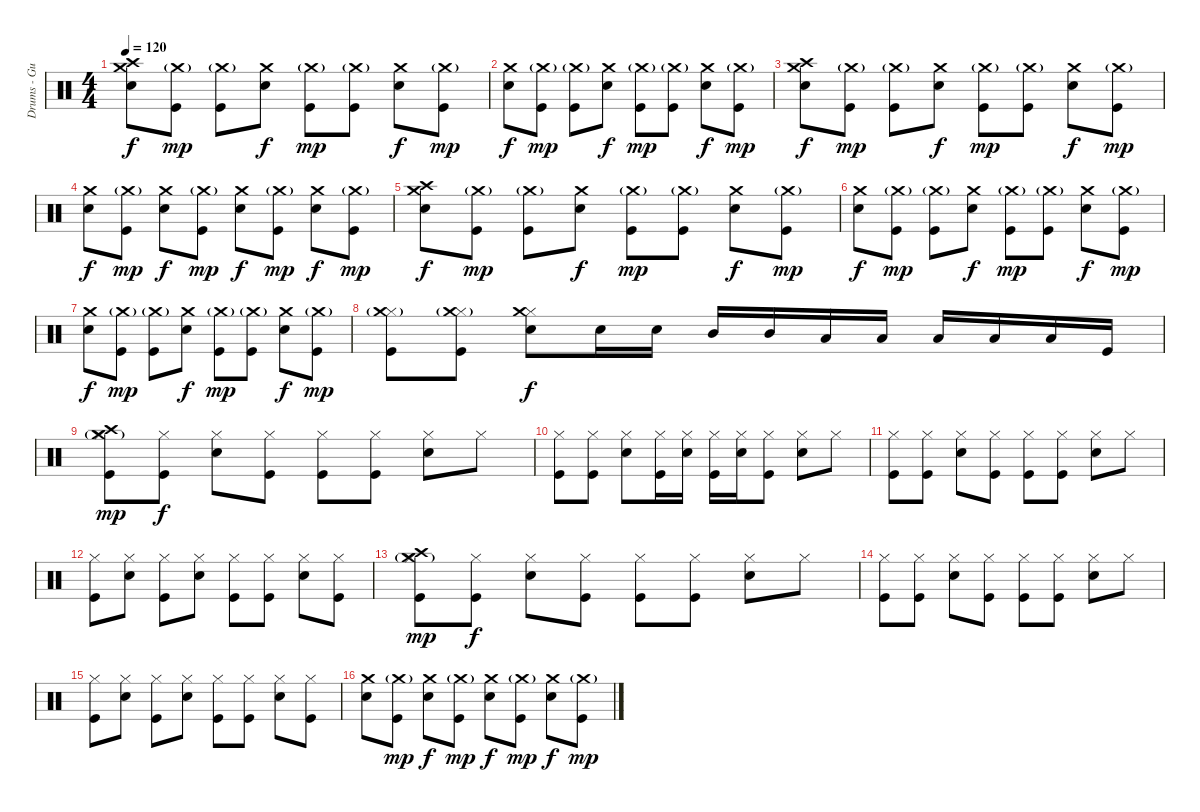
\track ("Drums - Gustav" "Drums - Gu") {instrument percussion}
\staff {score}
\articulation defaults
\ts (4 4)
\tempo 120
\clef neutral
\ks c
("Snare (hit) 2" "Crash high (hit)" "Crash medium (hit)").8{dy f} ("Kick (hit)" "Crash medium (hit)"{g}).8{dy mp} ("Kick (hit)" "Crash medium (hit)"{g}).8 ("Snare (hit) 2" "Crash medium (hit)").8{dy f} ("Kick (hit)" "Crash medium (hit)"{g}).8{dy mp} ("Kick (hit)" "Crash medium (hit)"{g}).8 ("Snare (hit) 2" "Crash medium (hit)").8{dy f} ("Kick (hit)" "Crash medium (hit)"{g}).8{dy mp} |
("Snare (hit) 2" "Crash medium (hit)").8{dy f} ("Kick (hit)" "Crash medium (hit)"{g}).8{dy mp} ("Kick (hit)" "Crash medium (hit)"{g}).8 ("Snare (hit) 2" "Crash medium (hit)").8{dy f} ("Kick (hit)" "Crash medium (hit)"{g}).8{dy mp} ("Kick (hit)" "Crash medium (hit)"{g}).8 ("Snare (hit) 2" "Crash medium (hit)").8{dy f} ("Kick (hit)" "Crash medium (hit)"{g}).8{dy mp} |
("Snare (hit) 2" "Crash high (hit)" "Crash medium (hit)").8{dy f} ("Kick (hit)" "Crash medium (hit)"{g}).8{dy mp} ("Kick (hit)" "Crash medium (hit)"{g}).8 ("Snare (hit) 2" "Crash medium (hit)").8{dy f} ("Kick (hit)" "Crash medium (hit)"{g}).8{dy mp} ("Kick (hit)" "Crash medium (hit)"{g}).8 ("Snare (hit) 2" "Crash medium (hit)").8{dy f} ("Kick (hit)" "Crash medium (hit)"{g}).8{dy mp} |
("Snare (hit) 2" "Crash medium (hit)").8{dy f} ("Kick (hit)" "Crash medium (hit)"{g}).8{dy mp} ("Snare (hit) 2" "Crash medium (hit)").8{dy f} ("Kick (hit)" "Crash medium (hit)"{g}).8{dy mp} ("Snare (hit) 2" "Crash medium (hit)").8{dy f} ("Kick (hit)" "Crash medium (hit)"{g}).8{dy mp} ("Snare (hit) 2" "Crash medium (hit)").8{dy f} ("Kick (hit)" "Crash medium (hit)"{g}).8{dy mp} |
("Snare (hit) 2" "Crash high (hit)" "Crash medium (hit)").8{dy f} ("Kick (hit)" "Crash medium (hit)"{g}).8{dy mp} ("Kick (hit)" "Crash medium (hit)"{g}).8 ("Snare (hit) 2" "Crash medium (hit)").8{dy f} ("Kick (hit)" "Crash medium (hit)"{g}).8{dy mp} ("Kick (hit)" "Crash medium (hit)"{g}).8 ("Snare (hit) 2" "Crash medium (hit)").8{dy f} ("Kick (hit)" "Crash medium (hit)"{g}).8{dy mp} |
("Snare (hit) 2" "Crash medium (hit)").8{dy f} ("Kick (hit)" "Crash medium (hit)"{g}).8{dy mp} ("Kick (hit)" "Crash medium (hit)"{g}).8 ("Snare (hit) 2" "Crash medium (hit)").8{dy f} ("Kick (hit)" "Crash medium (hit)"{g}).8{dy mp} ("Kick (hit)" "Crash medium (hit)"{g}).8 ("Snare (hit) 2" "Crash medium (hit)").8{dy f} ("Kick (hit)" "Crash medium (hit)"{g}).8{dy mp} |
("Snare (hit) 2" "Crash medium (hit)").8{dy f} ("Kick (hit)" "Crash medium (hit)"{g}).8{dy mp} ("Kick (hit)" "Crash medium (hit)"{g}).8 ("Snare (hit) 2" "Crash medium (hit)").8{dy f} ("Kick (hit)" "Crash medium (hit)"{g}).8{dy mp} ("Kick (hit)" "Crash medium (hit)"{g}).8 ("Snare (hit) 2" "Crash medium (hit)").8{dy f} ("Kick (hit)" "Crash medium (hit)"{g}).8{dy mp} |
("Kick (hit)" "Hi-Hat (closed)" "Crash medium (hit)"{g}).8 ("Kick (hit)" "Hi-Hat (closed)" "Crash medium (hit)"{g}).8 ("Hi-Hat (closed)" "Snare (hit) 2" "Crash medium (hit)").8{dy f} "Snare (hit) 2".16 "Snare (hit) 2".16 "Mid Tom (hit)".16 "Mid Tom (hit)".16 "Low Tom (hit)".16 "Low Tom (hit)".16 "Low Tom (hit)".16 "Low Tom (hit)".16 "Low Floor Tom (hit)".16 "Kick (hit)".16 |
("Kick (hit)" "Hi-Hat (closed)"{g} "Crash high (hit)" "Crash medium (hit)").8{dy mp} ("Kick (hit)" "Hi-Hat (closed)").8{dy f} ("Hi-Hat (closed)" "Snare (hit) 2").8 ("Kick (hit)" "Hi-Hat (closed)").8 ("Kick (hit)" "Hi-Hat (closed)").8 ("Kick (hit)" "Hi-Hat (closed)").8 ("Hi-Hat (closed)" "Snare (hit) 2").8 "Hi-Hat (closed)".8 |
("Kick (hit)" "Hi-Hat (closed)").8 ("Kick (hit)" "Hi-Hat (closed)").8 ("Hi-Hat (closed)" "Snare (hit) 2").8 ("Kick (hit)" "Hi-Hat (closed)").16 ("Hi-Hat (closed)" "Snare (hit) 2").16 ("Kick (hit)" "Hi-Hat (closed)").16 ("Hi-Hat (closed)" "Snare (hit) 2").16 ("Kick (hit)" "Hi-Hat (closed)").8 ("Hi-Hat (closed)" "Snare (hit) 2").8 "Hi-Hat (closed)".8 |
("Kick (hit)" "Hi-Hat (closed)").8 ("Kick (hit)" "Hi-Hat (closed)").8 ("Hi-Hat (closed)" "Snare (hit) 2").8 ("Kick (hit)" "Hi-Hat (closed)").8 ("Kick (hit)" "Hi-Hat (closed)").8 ("Kick (hit)" "Hi-Hat (closed)").8 ("Hi-Hat (closed)" "Snare (hit) 2").8 "Hi-Hat (closed)".8 |
("Kick (hit)" "Hi-Hat (closed)").8 ("Hi-Hat (closed)" "Snare (hit) 2").8 ("Kick (hit)" "Hi-Hat (closed)").8 ("Hi-Hat (closed)" "Snare (hit) 2").8 ("Kick (hit)" "Hi-Hat (closed)").8 ("Kick (hit)" "Hi-Hat (closed)").8 ("Hi-Hat (closed)" "Snare (hit) 2").8 ("Kick (hit)" "Hi-Hat (closed)").8 |
("Kick (hit)" "Hi-Hat (closed)"{g} "Crash high (hit)" "Crash medium (hit)").8{dy mp} ("Kick (hit)" "Hi-Hat (closed)").8{dy f} ("Hi-Hat (closed)" "Snare (hit) 2").8 ("Kick (hit)" "Hi-Hat (closed)").8 ("Kick (hit)" "Hi-Hat (closed)").8 ("Kick (hit)" "Hi-Hat (closed)").8 ("Hi-Hat (closed)" "Snare (hit) 2").8 "Hi-Hat (closed)".8 |
("Kick (hit)" "Hi-Hat (closed)").8 ("Kick (hit)" "Hi-Hat (closed)").8 ("Hi-Hat (closed)" "Snare (hit) 2").8 ("Kick (hit)" "Hi-Hat (closed)").8 ("Kick (hit)" "Hi-Hat (closed)").8 ("Kick (hit)" "Hi-Hat (closed)").8 ("Hi-Hat (closed)" "Snare (hit) 2").8 "Hi-Hat (closed)".8 |
("Kick (hit)" "Hi-Hat (closed)").8 ("Hi-Hat (closed)" "Snare (hit) 2").8 ("Kick (hit)" "Hi-Hat (closed)").8 ("Hi-Hat (closed)" "Snare (hit) 2").8 ("Kick (hit)" "Hi-Hat (closed)").8 ("Kick (hit)" "Hi-Hat (closed)").8 ("Hi-Hat (closed)" "Snare (hit) 2").8 ("Kick (hit)" "Hi-Hat (closed)").8 |
("Snare (hit) 2" "Crash medium (hit)").8 ("Kick (hit)" "Crash medium (hit)"{g}).8{dy mp} ("Snare (hit) 2" "Crash medium (hit)").8{dy f} ("Kick (hit)" "Crash medium (hit)"{g}).8{dy mp} ("Snare (hit) 2" "Crash medium (hit)").8{dy f} ("Kick (hit)" "Crash medium (hit)"{g}).8{dy mp} ("Snare (hit) 2" "Crash medium (hit)").8{dy f} ("Kick (hit)" "Crash medium (hit)"{g}).8{dy mp}
